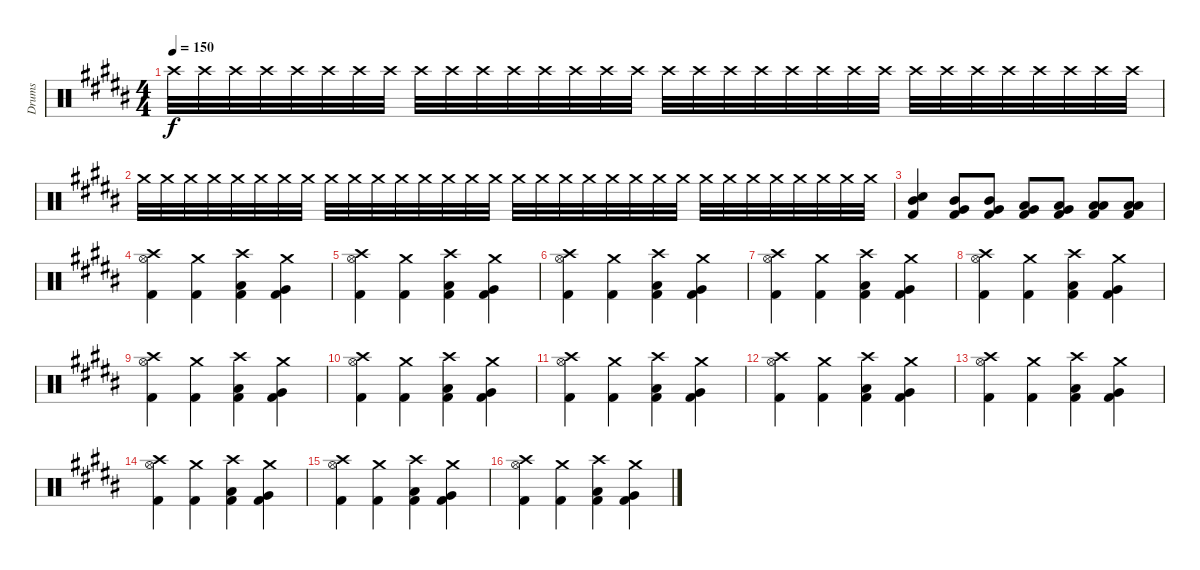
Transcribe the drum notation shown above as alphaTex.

\track ("Drums" "Drums") {instrument percussion}
\staff {score}
\articulation defaults
\ts (4 4)
\tempo 150
\clef neutral
\ks b "Crash high (hit)".32{dy f} "Crash high (hit)".32 "Crash high (hit)".32 "Crash high (hit)".32 "Crash high (hit)".32 "Crash high (hit)".32 "Crash high (hit)".32 "Crash high (hit)".32 "Crash high (hit)".32 "Crash high (hit)".32 "Crash high (hit)".32 "Crash high (hit)".32 "Crash high (hit)".32 "Crash high (hit)".32 "Crash high (hit)".32 "Crash high (hit)".32 "Crash high (hit)".32 "Crash high (hit)".32 "Crash high (hit)".32 "Crash high (hit)".32 "Crash high (hit)".32 "Crash high (hit)".32 "Crash high (hit)".32 "Crash high (hit)".32 "Crash high (hit)".32 "Crash high (hit)".32 "Crash high (hit)".32 "Crash high (hit)".32 "Crash high (hit)".32 "Crash high (hit)".32 "Crash high (hit)".32 "Crash high (hit)".32
|
"Crash medium (hit)".32 "Crash medium (hit)".32 "Crash medium (hit)".32 "Crash medium (hit)".32 "Crash medium (hit)".32 "Crash medium (hit)".32 "Crash medium (hit)".32 "Crash medium (hit)".32 "Crash medium (hit)".32 "Crash medium (hit)".32 "Crash medium (hit)".32 "Crash medium (hit)".32 "Crash medium (hit)".32 "Crash medium (hit)".32 "Crash medium (hit)".32 "Crash medium (hit)".32 "Crash medium (hit)".32 "Crash medium (hit)".32 "Crash medium (hit)".32 "Crash medium (hit)".32 "Crash medium (hit)".32 "Crash medium (hit)".32 "Crash medium (hit)".32 "Crash medium (hit)".32 "Crash medium (hit)".32 "Crash medium (hit)".32 "Crash medium (hit)".32 "Crash medium (hit)".32 "Crash medium (hit)".32 "Crash medium (hit)".32 "Crash medium (hit)".32 "Crash medium (hit)".32 |
("Kick (hit) 2" "Snare (hit) 2" "Mid Tom (hit)").4 ("Kick (hit) 2" "Mid Tom (hit)" "Very Low Tom (hit)").8 ("Kick (hit) 2" "Mid Tom (hit)" "Very Low Tom (hit)").8 ("Kick (hit) 2" "Very Low Tom (hit)" "Low Tom (hit)").8 ("Kick (hit) 2" "Very Low Tom (hit)" "Low Tom (hit)").8 ("Kick (hit) 2" "Low Tom (hit)" "Low Floor Tom (hit)").8 ("Kick (hit) 2" "Low Tom (hit)" "Low Floor Tom (hit)").8 |
("Crash high (hit)" "Hi-Hat (open)" "Kick (hit) 2").4 ("Crash medium (hit)" "Kick (hit) 2").4 ("Crash high (hit)" "Low Tom (hit)" "Kick (hit) 2").4 ("Crash medium (hit)" "Very Low Tom (hit)" "Kick (hit) 2").4 |
("Crash high (hit)" "Hi-Hat (open)" "Kick (hit) 2").4 ("Crash medium (hit)" "Kick (hit) 2").4 ("Crash high (hit)" "Low Tom (hit)" "Kick (hit) 2").4 ("Crash medium (hit)" "Very Low Tom (hit)" "Kick (hit) 2").4 |
("Crash high (hit)" "Hi-Hat (open)" "Kick (hit) 2").4 ("Crash medium (hit)" "Kick (hit) 2").4 ("Crash high (hit)" "Low Tom (hit)" "Kick (hit) 2").4 ("Crash medium (hit)" "Very Low Tom (hit)" "Kick (hit) 2").4 |
("Crash high (hit)" "Hi-Hat (open)" "Kick (hit) 2").4 ("Crash medium (hit)" "Kick (hit) 2").4 ("Crash high (hit)" "Low Tom (hit)" "Kick (hit) 2").4 ("Crash medium (hit)" "Very Low Tom (hit)" "Kick (hit) 2").4 |
("Crash high (hit)" "Hi-Hat (open)" "Kick (hit) 2").4 ("Crash medium (hit)" "Kick (hit) 2").4 ("Crash high (hit)" "Low Tom (hit)" "Kick (hit) 2").4 ("Crash medium (hit)" "Very Low Tom (hit)" "Kick (hit) 2").4 |
("Crash high (hit)" "Hi-Hat (open)" "Kick (hit) 2").4 ("Crash medium (hit)" "Kick (hit) 2").4 ("Crash high (hit)" "Low Tom (hit)" "Kick (hit) 2").4 ("Crash medium (hit)" "Very Low Tom (hit)" "Kick (hit) 2").4 |
("Crash high (hit)" "Hi-Hat (open)" "Kick (hit) 2").4 ("Crash medium (hit)" "Kick (hit) 2").4 ("Crash high (hit)" "Low Tom (hit)" "Kick (hit) 2").4 ("Crash medium (hit)" "Very Low Tom (hit)" "Kick (hit) 2").4 |
("Crash high (hit)" "Hi-Hat (open)" "Kick (hit) 2").4 ("Crash medium (hit)" "Kick (hit) 2").4 ("Crash high (hit)" "Low Tom (hit)" "Kick (hit) 2").4 ("Crash medium (hit)" "Very Low Tom (hit)" "Kick (hit) 2").4 |
("Crash high (hit)" "Hi-Hat (open)" "Kick (hit) 2").4 ("Crash medium (hit)" "Kick (hit) 2").4 ("Crash high (hit)" "Low Tom (hit)" "Kick (hit) 2").4 ("Crash medium (hit)" "Very Low Tom (hit)" "Kick (hit) 2").4 |
("Crash high (hit)" "Hi-Hat (open)" "Kick (hit) 2").4 ("Crash medium (hit)" "Kick (hit) 2").4 ("Crash high (hit)" "Low Tom (hit)" "Kick (hit) 2").4 ("Crash medium (hit)" "Very Low Tom (hit)" "Kick (hit) 2").4 |
("Crash high (hit)" "Hi-Hat (open)" "Kick (hit) 2").4 ("Crash medium (hit)" "Kick (hit) 2").4 ("Crash high (hit)" "Low Tom (hit)" "Kick (hit) 2").4 ("Crash medium (hit)" "Very Low Tom (hit)" "Kick (hit) 2").4 |
("Crash high (hit)" "Hi-Hat (open)" "Kick (hit) 2").4 ("Crash medium (hit)" "Kick (hit) 2").4 ("Crash high (hit)" "Low Tom (hit)" "Kick (hit) 2").4 ("Crash medium (hit)" "Very Low Tom (hit)" "Kick (hit) 2").4 |
("Crash high (hit)" "Hi-Hat (open)" "Kick (hit) 2").4 ("Crash medium (hit)" "Kick (hit) 2").4 ("Crash high (hit)" "Low Tom (hit)" "Kick (hit) 2").4 ("Crash medium (hit)" "Very Low Tom (hit)" "Kick (hit) 2").4
